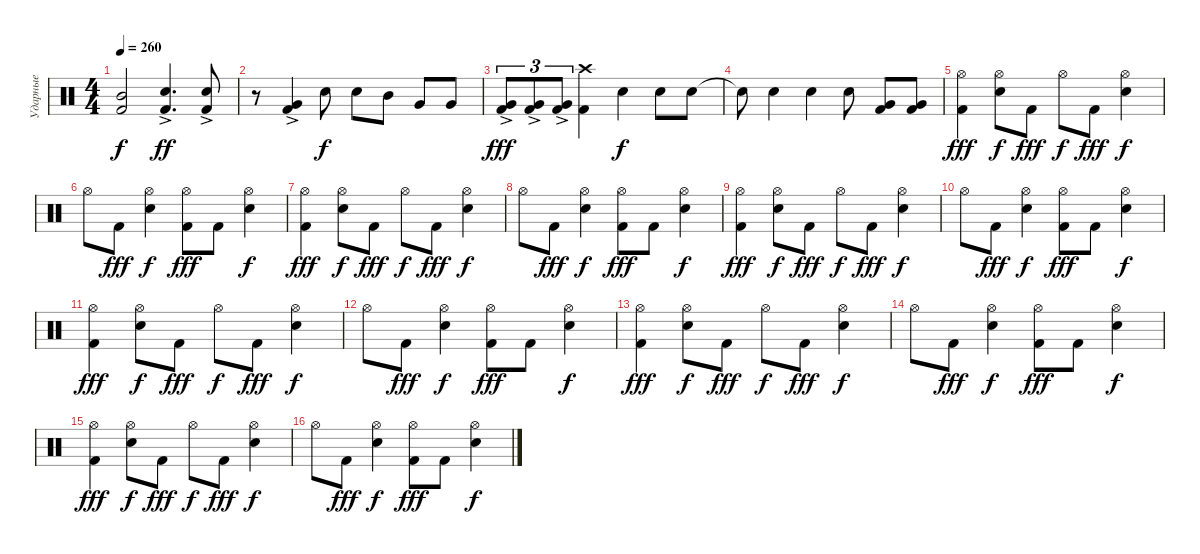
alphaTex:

\track ("Ударные" "Ударные") {instrument percussion}
\staff {score}
\articulation defaults
\ts (4 4)
\tempo 260
\clef neutral
\ks c
("Kick (hit) 2" "Mid Tom (hit)").2{dy f} ("Kick (hit) 2" "Snare (hit) 2"{ac}).4{d dy ff} ("Kick (hit) 2" "Snare (hit) 2"{ac}).8 |
r.8 ("Kick (hit) 2" "Very Low Tom (hit)"{ac}).4 "Snare (hit) 2".8{dy f} "Snare (hit) 2".8 "Mid Tom (hit)".8 "Very Low Tom (hit)".8 "Very Low Tom (hit)".8 |
("Kick (hit) 2" "Very Low Tom (hit)"{ac}).8{tu (3 2) dy fff} ("Kick (hit) 2" "Very Low Tom (hit)"{ac}).8{tu (3 2)} ("Kick (hit) 2" "Very Low Tom (hit)"{ac}).8{tu (3 2)} ("Kick (hit) 2" "Crash high (hit)").4 "Snare (hit) 2".4{dy f} "Snare (hit) 2".8 "Snare (hit) 2".8 |
"Snare (hit)"{t}.8 "Snare (hit) 2".4 "Snare (hit) 2".4 "Snare (hit) 2".8 ("Kick (hit) 2" "Very Low Tom (hit)").8 ("Kick (hit) 2" "Very Low Tom (hit)").8 |
("Kick (hit) 2" "Hi-Hat (open)").4{dy fff} ("Snare (hit) 2" "Hi-Hat (open)").8{dy f} "Kick (hit) 2".8{dy fff} "Hi-Hat (open)".8{dy f} "Kick (hit) 2".8{dy fff} ("Snare (hit) 2" "Hi-Hat (open)").4{dy f} |
"Hi-Hat (open)".8 "Kick (hit) 2".8{dy fff} ("Snare (hit) 2" "Hi-Hat (open)").4{dy f} ("Kick (hit) 2" "Hi-Hat (open)").8{dy fff} "Kick (hit) 2".8 ("Snare (hit) 2" "Hi-Hat (open)").4{dy f} |
("Kick (hit) 2" "Hi-Hat (open)").4{dy fff} ("Snare (hit) 2" "Hi-Hat (open)").8{dy f} "Kick (hit) 2".8{dy fff} "Hi-Hat (open)".8{dy f} "Kick (hit) 2".8{dy fff} ("Snare (hit) 2" "Hi-Hat (open)").4{dy f} |
"Hi-Hat (open)".8 "Kick (hit) 2".8{dy fff} ("Snare (hit) 2" "Hi-Hat (open)").4{dy f} ("Kick (hit) 2" "Hi-Hat (open)").8{dy fff} "Kick (hit) 2".8 ("Snare (hit) 2" "Hi-Hat (open)").4{dy f} |
("Kick (hit) 2" "Hi-Hat (open)").4{dy fff} ("Snare (hit) 2" "Hi-Hat (open)").8{dy f} "Kick (hit) 2".8{dy fff} "Hi-Hat (open)".8{dy f} "Kick (hit) 2".8{dy fff} ("Snare (hit) 2" "Hi-Hat (open)").4{dy f} |
"Hi-Hat (open)".8 "Kick (hit) 2".8{dy fff} ("Snare (hit) 2" "Hi-Hat (open)").4{dy f} ("Kick (hit) 2" "Hi-Hat (open)").8{dy fff} "Kick (hit) 2".8 ("Snare (hit) 2" "Hi-Hat (open)").4{dy f} |
("Kick (hit) 2" "Hi-Hat (open)").4{dy fff} ("Snare (hit) 2" "Hi-Hat (open)").8{dy f} "Kick (hit) 2".8{dy fff} "Hi-Hat (open)".8{dy f} "Kick (hit) 2".8{dy fff} ("Snare (hit) 2" "Hi-Hat (open)").4{dy f} |
"Hi-Hat (open)".8 "Kick (hit) 2".8{dy fff} ("Snare (hit) 2" "Hi-Hat (open)").4{dy f} ("Kick (hit) 2" "Hi-Hat (open)").8{dy fff} "Kick (hit) 2".8 ("Snare (hit) 2" "Hi-Hat (open)").4{dy f} |
("Kick (hit) 2" "Hi-Hat (open)").4{dy fff} ("Snare (hit) 2" "Hi-Hat (open)").8{dy f} "Kick (hit) 2".8{dy fff} "Hi-Hat (open)".8{dy f} "Kick (hit) 2".8{dy fff} ("Snare (hit) 2" "Hi-Hat (open)").4{dy f} |
"Hi-Hat (open)".8 "Kick (hit) 2".8{dy fff} ("Snare (hit) 2" "Hi-Hat (open)").4{dy f} ("Kick (hit) 2" "Hi-Hat (open)").8{dy fff} "Kick (hit) 2".8 ("Snare (hit) 2" "Hi-Hat (open)").4{dy f} |
("Kick (hit) 2" "Hi-Hat (open)").4{dy fff} ("Snare (hit) 2" "Hi-Hat (open)").8{dy f} "Kick (hit) 2".8{dy fff} "Hi-Hat (open)".8{dy f} "Kick (hit) 2".8{dy fff} ("Snare (hit) 2" "Hi-Hat (open)").4{dy f} |
"Hi-Hat (open)".8 "Kick (hit) 2".8{dy fff} ("Snare (hit) 2" "Hi-Hat (open)").4{dy f} ("Kick (hit) 2" "Hi-Hat (open)").8{dy fff} "Kick (hit) 2".8 ("Snare (hit) 2" "Hi-Hat (open)").4{dy f}
